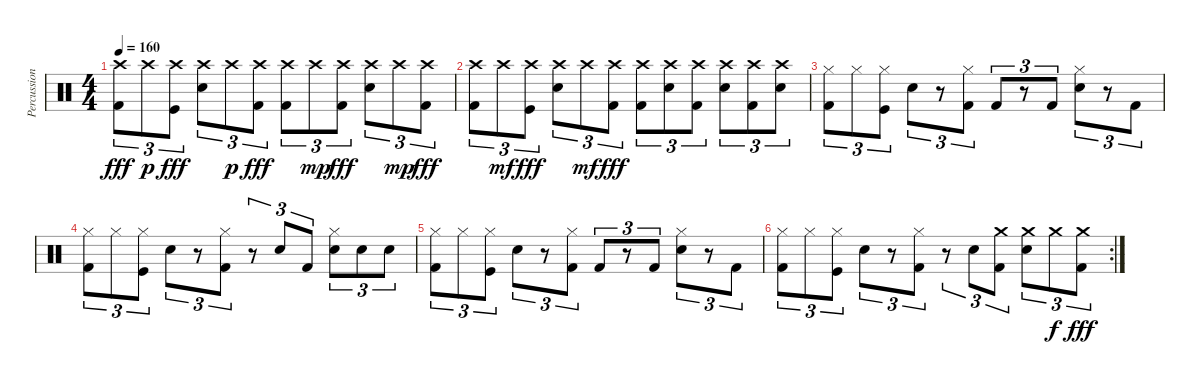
\track ("Percussions" "Percussion") {instrument percussion}
\staff {score}
\articulation defaults
\ts (4 4)
\tempo 160
\clef neutral
\ks c
("Crash high (hit)" "Kick (hit) 2").8{tu (3 2) dy fff} "Crash high (hit)".8{tu (3 2) dy p} ("Crash high (hit)" "Kick (hit)").8{tu (3 2) dy fff} ("Crash high (hit)" "Electric Snare (hit)").8{tu (3 2)} "Crash high (hit)".8{tu (3 2) dy p} ("Crash high (hit)" "Kick (hit) 2").8{tu (3 2) dy fff} ("Crash high (hit)" "Kick (hit) 2").8{tu (3 2)} "Crash high (hit)".8{tu (3 2) dy mp} ("Crash high (hit)" "Kick (hit) 2").8{tu (3 2) dy fff} ("Crash high (hit)" "Electric Snare (hit)").8{tu (3 2)} "Crash high (hit)".8{tu (3 2) dy mp} ("Crash high (hit)" "Kick (hit) 2").8{tu (3 2) dy fff} |
("Crash high (hit)" "Kick (hit) 2").8{tu (3 2)} "Crash high (hit)".8{tu (3 2) dy mf} ("Crash high (hit)" "Kick (hit)").8{tu (3 2) dy fff} ("Crash high (hit)" "Electric Snare (hit)").8{tu (3 2)} "Crash high (hit)".8{tu (3 2) dy mf} ("Crash high (hit)" "Kick (hit) 2").8{tu (3 2) dy fff} ("Crash high (hit)" "Kick (hit) 2").8{tu (3 2)} ("Crash high (hit)" "Electric Snare (hit)").8{tu (3 2)} ("Crash high (hit)" "Kick (hit) 2").8{tu (3 2)} ("Crash high (hit)" "Electric Snare (hit)").8{tu (3 2)} ("Crash high (hit)" "Kick (hit) 2").8{tu (3 2)} ("Crash high (hit)" "Electric Snare (hit)").8{tu (3 2)} |
("Hi-Hat (closed)" "Kick (hit) 2").8{tu (3 2)} "Hi-Hat (closed)".8{tu (3 2)} ("Hi-Hat (closed)" "Kick (hit)").8{tu (3 2)} "Electric Snare (hit)".8{tu (3 2)} r.8{tu (3 2)} ("Hi-Hat (closed)" "Kick (hit) 2").8{tu (3 2)} "Kick (hit) 2".8{tu (3 2)} r.8{tu (3 2)} "Kick (hit) 2".8{tu (3 2)} ("Hi-Hat (closed)" "Electric Snare (hit)").8{tu (3 2)} r.8{tu (3 2)} "Kick (hit) 2".8{tu (3 2)} |
("Hi-Hat (closed)" "Kick (hit) 2").8{tu (3 2)} "Hi-Hat (closed)".8{tu (3 2)} ("Hi-Hat (closed)" "Kick (hit)").8{tu (3 2)} "Electric Snare (hit)".8{tu (3 2)} r.8{tu (3 2)} ("Hi-Hat (closed)" "Kick (hit) 2").8{tu (3 2)} r.8{tu (3 2)} "Electric Snare (hit)".8{tu (3 2)} "Kick (hit) 2".8{tu (3 2)} ("Hi-Hat (closed)" "Electric Snare (hit)").8{tu (3 2)} "Electric Snare (hit)".8{tu (3 2)} "Electric Snare (hit)".8{tu (3 2)} |
("Hi-Hat (closed)" "Kick (hit) 2").8{tu (3 2)} "Hi-Hat (closed)".8{tu (3 2)} ("Hi-Hat (closed)" "Kick (hit)").8{tu (3 2)} "Electric Snare (hit)".8{tu (3 2)} r.8{tu (3 2)} ("Hi-Hat (closed)" "Kick (hit) 2").8{tu (3 2)} "Kick (hit) 2".8{tu (3 2)} r.8{tu (3 2)} "Kick (hit) 2".8{tu (3 2)} ("Hi-Hat (closed)" "Electric Snare (hit)").8{tu (3 2)} r.8{tu (3 2)} "Kick (hit) 2".8{tu (3 2)} |
\rc 2
("Hi-Hat (closed)" "Kick (hit) 2").8{tu (3 2)} "Hi-Hat (closed)".8{tu (3 2)} ("Hi-Hat (closed)" "Kick (hit)").8{tu (3 2)} "Electric Snare (hit)".8{tu (3 2)} r.8{tu (3 2)} ("Hi-Hat (closed)" "Kick (hit) 2").8{tu (3 2)} r.8{tu (3 2)} "Electric Snare (hit)".8{tu (3 2)} ("Crash medium (hit)" "Kick (hit) 2").8{tu (3 2)} ("Crash medium (hit)" "Electric Snare (hit)").8{tu (3 2)} "Crash medium (hit)".8{tu (3 2) dy f} ("Crash medium (hit)" "Kick (hit) 2").8{tu (3 2) dy fff}
